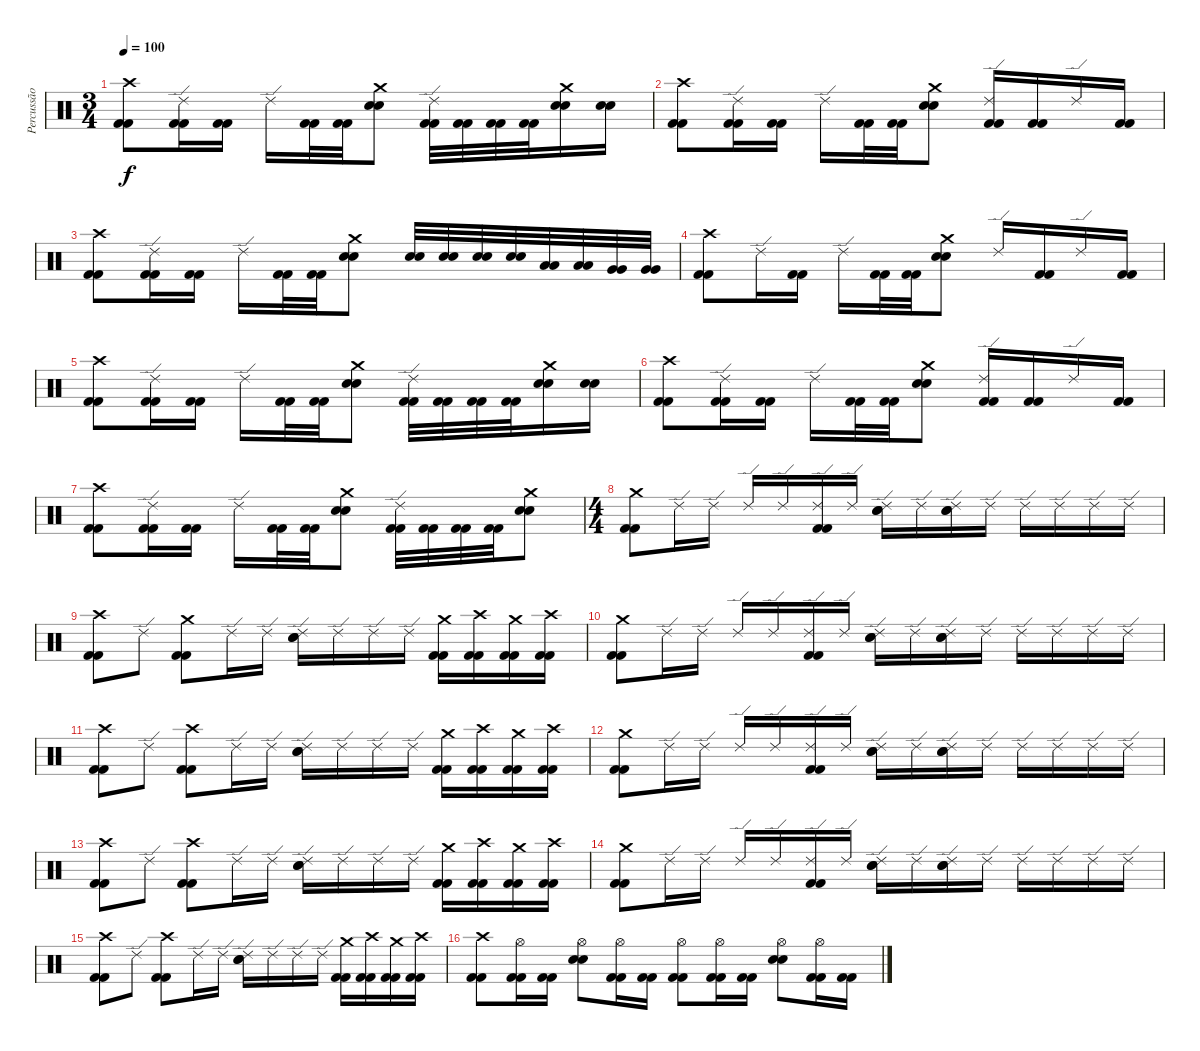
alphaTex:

\track ("Percussão" "Percussão") {instrument percussion}
\staff {score}
\articulation defaults
\ts (3 4)
\tempo 100
\clef neutral
\ks c
("Crash high (hit)" "Kick (hit) 2" "Kick (hit) 2").8{dy f} ("Ride (edge) 2" "Kick (hit) 2" "Kick (hit) 2").16 ("Kick (hit) 2" "Kick (hit) 2").16 "Ride (edge) 2".16 ("Kick (hit) 2" "Kick (hit) 2").32 ("Kick (hit) 2" "Kick (hit) 2").32 ("Crash medium (hit)" "Electric Snare (hit)" "Electric Snare (hit)").8 ("Ride (edge) 2" "Kick (hit) 2" "Kick (hit) 2").32 ("Kick (hit) 2" "Kick (hit) 2").32 ("Kick (hit) 2" "Kick (hit) 2").32 ("Kick (hit) 2" "Kick (hit) 2").32 ("Crash medium (hit)" "Electric Snare (hit)" "Electric Snare (hit)").16 ("Electric Snare (hit)" "Electric Snare (hit)").16 |
("Crash high (hit)" "Kick (hit) 2" "Kick (hit) 2").8 ("Ride (edge) 2" "Kick (hit) 2" "Kick (hit) 2").16 ("Kick (hit) 2" "Kick (hit) 2").16 "Ride (edge) 2".16 ("Kick (hit) 2" "Kick (hit) 2").32 ("Kick (hit) 2" "Kick (hit) 2").32 ("Crash medium (hit)" "Electric Snare (hit)" "Electric Snare (hit)").8 ("Ride (edge) 2" "Kick (hit) 2" "Kick (hit) 2").16 ("Kick (hit) 2" "Kick (hit) 2").16 "Ride (edge) 2".16 ("Kick (hit) 2" "Kick (hit) 2").16 |
("Crash high (hit)" "Kick (hit) 2" "Kick (hit) 2").8 ("Ride (edge) 2" "Kick (hit) 2" "Kick (hit) 2").16 ("Kick (hit) 2" "Kick (hit) 2").16 "Ride (edge) 2".16 ("Kick (hit) 2" "Kick (hit) 2").32 ("Kick (hit) 2" "Kick (hit) 2").32 ("Crash medium (hit)" "Electric Snare (hit)" "Electric Snare (hit)").8 ("Electric Snare (hit)" "Electric Snare (hit)").32 ("Electric Snare (hit)" "Electric Snare (hit)").32 ("Electric Snare (hit)" "Electric Snare (hit)").32 ("Electric Snare (hit)" "Electric Snare (hit)").32 ("Low Tom (hit)" "Low Tom (hit)").32 ("Low Tom (hit)" "Low Tom (hit)").32 ("Very Low Tom (hit)" "Very Low Tom (hit)").32 ("Very Low Tom (hit)" "Very Low Tom (hit)").32 |
("Crash high (hit)" "Kick (hit) 2" "Kick (hit) 2").8 "Ride (edge) 2".16 ("Kick (hit) 2" "Kick (hit) 2").16 "Ride (edge) 2".16 ("Kick (hit) 2" "Kick (hit) 2").32 ("Kick (hit) 2" "Kick (hit) 2").32 ("Crash medium (hit)" "Electric Snare (hit)" "Electric Snare (hit)").8 "Ride (edge) 2".16 ("Kick (hit) 2" "Kick (hit) 2").16 "Ride (edge) 2".16 ("Kick (hit) 2" "Kick (hit) 2").16 |
("Crash high (hit)" "Kick (hit) 2" "Kick (hit) 2").8 ("Ride (edge) 2" "Kick (hit) 2" "Kick (hit) 2").16 ("Kick (hit) 2" "Kick (hit) 2").16 "Ride (edge) 2".16 ("Kick (hit) 2" "Kick (hit) 2").32 ("Kick (hit) 2" "Kick (hit) 2").32 ("Crash medium (hit)" "Electric Snare (hit)" "Electric Snare (hit)").8 ("Ride (edge) 2" "Kick (hit) 2" "Kick (hit) 2").32 ("Kick (hit) 2" "Kick (hit) 2").32 ("Kick (hit) 2" "Kick (hit) 2").32 ("Kick (hit) 2" "Kick (hit) 2").32 ("Crash medium (hit)" "Electric Snare (hit)" "Electric Snare (hit)").16 ("Electric Snare (hit)" "Electric Snare (hit)").16 |
("Crash high (hit)" "Kick (hit) 2" "Kick (hit) 2").8 ("Ride (edge) 2" "Kick (hit) 2" "Kick (hit) 2").16 ("Kick (hit) 2" "Kick (hit) 2").16 "Ride (edge) 2".16 ("Kick (hit) 2" "Kick (hit) 2").32 ("Kick (hit) 2" "Kick (hit) 2").32 ("Crash medium (hit)" "Electric Snare (hit)" "Electric Snare (hit)").8 ("Ride (edge) 2" "Kick (hit) 2" "Kick (hit) 2").16 ("Kick (hit) 2" "Kick (hit) 2").16 "Ride (edge) 2".16 ("Kick (hit) 2" "Kick (hit) 2").16 |
("Crash high (hit)" "Kick (hit) 2" "Kick (hit) 2").8 ("Ride (edge) 2" "Kick (hit) 2" "Kick (hit) 2").16 ("Kick (hit) 2" "Kick (hit) 2").16 "Ride (edge) 2".16 ("Kick (hit) 2" "Kick (hit) 2").32 ("Kick (hit) 2" "Kick (hit) 2").32 ("Crash medium (hit)" "Electric Snare (hit)" "Electric Snare (hit)").8 ("Ride (edge) 2" "Kick (hit) 2" "Kick (hit) 2").32 ("Kick (hit) 2" "Kick (hit) 2").32 ("Kick (hit) 2" "Kick (hit) 2").32 ("Kick (hit) 2" "Kick (hit) 2").32 ("Crash medium (hit)" "Electric Snare (hit)" "Electric Snare (hit)").8 |
\ts (4 4)
("Crash medium (hit)" "Kick (hit) 2" "Kick (hit) 2").8 "Ride (edge) 2".16 "Ride (edge) 2".16 "Ride (edge) 2".16 "Ride (edge) 2".16 ("Ride (edge) 2" "Kick (hit) 2" "Kick (hit) 2").16 "Ride (edge) 2".16 ("Ride (edge) 2" "Electric Snare (hit)" "Electric Snare (hit)").16 "Ride (edge) 2".16 ("Ride (edge) 2" "Electric Snare (hit)" "Electric Snare (hit)").16 "Ride (edge) 2".16 "Ride (edge) 2".16 "Ride (edge) 2".16 "Ride (edge) 2".16 "Ride (edge) 2".16 |
("Crash high (hit)" "Kick (hit) 2" "Kick (hit) 2").8 "Ride (edge) 2".8 ("Crash medium (hit)" "Kick (hit) 2" "Kick (hit) 2").8 "Ride (edge) 2".16 "Ride (edge) 2".16 ("Ride (edge) 2" "Electric Snare (hit)" "Electric Snare (hit)").16 "Ride (edge) 2".16 "Ride (edge) 2".16 "Ride (edge) 2".16 ("Crash medium (hit)" "Kick (hit) 2" "Kick (hit) 2").16 ("Crash high (hit)" "Kick (hit) 2" "Kick (hit) 2").16 ("Crash medium (hit)" "Kick (hit) 2" "Kick (hit) 2").16 ("Crash high (hit)" "Kick (hit) 2" "Kick (hit) 2").16 |
("Crash medium (hit)" "Kick (hit) 2" "Kick (hit) 2").8 "Ride (edge) 2".16 "Ride (edge) 2".16 "Ride (edge) 2".16 "Ride (edge) 2".16 ("Ride (edge) 2" "Kick (hit) 2" "Kick (hit) 2").16 "Ride (edge) 2".16 ("Ride (edge) 2" "Electric Snare (hit)" "Electric Snare (hit)").16 "Ride (edge) 2".16 ("Ride (edge) 2" "Electric Snare (hit)" "Electric Snare (hit)").16 "Ride (edge) 2".16 "Ride (edge) 2".16 "Ride (edge) 2".16 "Ride (edge) 2".16 "Ride (edge) 2".16 |
("Crash high (hit)" "Kick (hit) 2" "Kick (hit) 2").8 "Ride (edge) 2".8 ("Crash high (hit)" "Kick (hit) 2" "Kick (hit) 2").8 "Ride (edge) 2".16 "Ride (edge) 2".16 ("Ride (edge) 2" "Electric Snare (hit)" "Electric Snare (hit)").16 "Ride (edge) 2".16 "Ride (edge) 2".16 "Ride (edge) 2".16 ("Crash medium (hit)" "Kick (hit) 2" "Kick (hit) 2").16 ("Crash high (hit)" "Kick (hit) 2" "Kick (hit) 2").16 ("Crash medium (hit)" "Kick (hit) 2" "Kick (hit) 2").16 ("Crash high (hit)" "Kick (hit) 2" "Kick (hit) 2").16 |
("Crash medium (hit)" "Kick (hit) 2" "Kick (hit) 2").8 "Ride (edge) 2".16 "Ride (edge) 2".16 "Ride (edge) 2".16 "Ride (edge) 2".16 ("Ride (edge) 2" "Kick (hit) 2" "Kick (hit) 2").16 "Ride (edge) 2".16 ("Ride (edge) 2" "Electric Snare (hit)" "Electric Snare (hit)").16 "Ride (edge) 2".16 ("Ride (edge) 2" "Electric Snare (hit)" "Electric Snare (hit)").16 "Ride (edge) 2".16 "Ride (edge) 2".16 "Ride (edge) 2".16 "Ride (edge) 2".16 "Ride (edge) 2".16 |
("Crash high (hit)" "Kick (hit) 2" "Kick (hit) 2").8 "Ride (edge) 2".8 ("Crash high (hit)" "Kick (hit) 2" "Kick (hit) 2").8 "Ride (edge) 2".16 "Ride (edge) 2".16 ("Ride (edge) 2" "Electric Snare (hit)" "Electric Snare (hit)").16 "Ride (edge) 2".16 "Ride (edge) 2".16 "Ride (edge) 2".16 ("Crash medium (hit)" "Kick (hit) 2" "Kick (hit) 2").16 ("Crash high (hit)" "Kick (hit) 2" "Kick (hit) 2").16 ("Crash medium (hit)" "Kick (hit) 2" "Kick (hit) 2").16 ("Crash high (hit)" "Kick (hit) 2" "Kick (hit) 2").16 |
("Crash medium (hit)" "Kick (hit) 2" "Kick (hit) 2").8 "Ride (edge) 2".16 "Ride (edge) 2".16 "Ride (edge) 2".16 "Ride (edge) 2".16 ("Ride (edge) 2" "Kick (hit) 2" "Kick (hit) 2").16 "Ride (edge) 2".16 ("Ride (edge) 2" "Electric Snare (hit)" "Electric Snare (hit)").16 "Ride (edge) 2".16 ("Ride (edge) 2" "Electric Snare (hit)" "Electric Snare (hit)").16 "Ride (edge) 2".16 "Ride (edge) 2".16 "Ride (edge) 2".16 "Ride (edge) 2".16 "Ride (edge) 2".16 |
("Crash high (hit)" "Kick (hit) 2" "Kick (hit) 2").8 "Ride (edge) 2".8 ("Crash high (hit)" "Kick (hit) 2" "Kick (hit) 2").8 "Ride (edge) 2".16 "Ride (edge) 2".16 ("Ride (edge) 2" "Electric Snare (hit)" "Electric Snare (hit)").16 "Ride (edge) 2".16 "Ride (edge) 2".16 "Ride (edge) 2".16 ("Crash medium (hit)" "Kick (hit) 2" "Kick (hit) 2").16 ("Crash high (hit)" "Kick (hit) 2" "Kick (hit) 2").16 ("Crash medium (hit)" "Kick (hit) 2" "Kick (hit) 2").16 ("Crash high (hit)" "Kick (hit) 2" "Kick (hit) 2").16 |
("Crash high (hit)" "Kick (hit) 2" "Kick (hit) 2").8 ("Hi-Hat (open)" "Kick (hit) 2" "Kick (hit) 2").16 ("Kick (hit) 2" "Kick (hit) 2").16 ("Hi-Hat (open)" "Electric Snare (hit)" "Electric Snare (hit)").8 ("Hi-Hat (open)" "Kick (hit) 2" "Kick (hit) 2").16 ("Kick (hit) 2" "Kick (hit) 2").16 ("Hi-Hat (open)" "Kick (hit) 2" "Kick (hit) 2").8 ("Hi-Hat (open)" "Kick (hit) 2" "Kick (hit) 2").16 ("Kick (hit) 2" "Kick (hit) 2").16 ("Hi-Hat (open)" "Electric Snare (hit)" "Electric Snare (hit)").8 ("Hi-Hat (open)" "Kick (hit) 2" "Kick (hit) 2").16 ("Kick (hit) 2" "Kick (hit) 2").16
